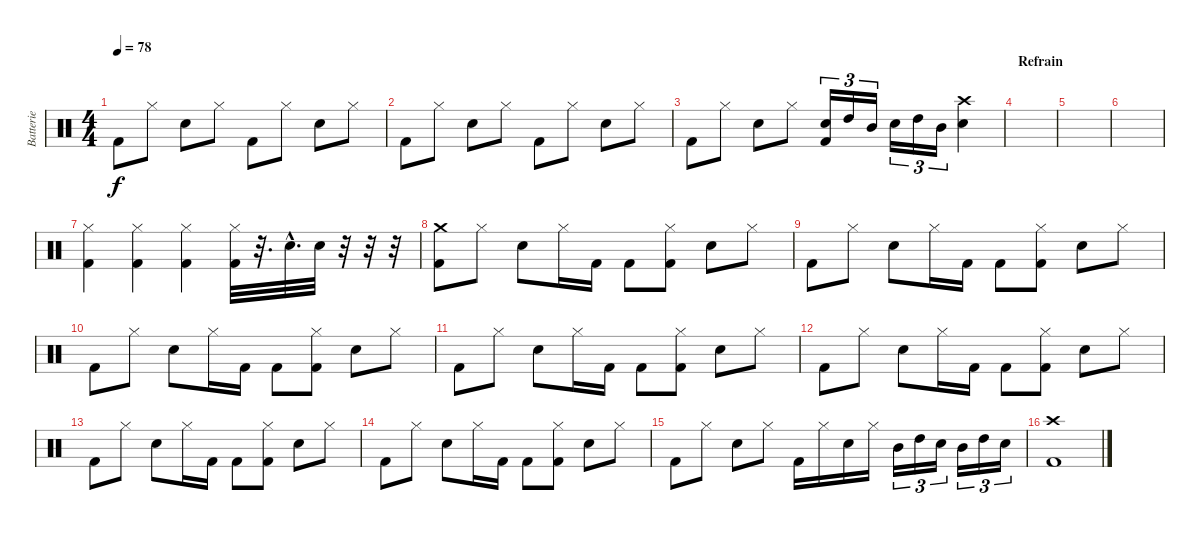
\track ("Batterie" "Batterie") {instrument percussion}
\staff {score}
\articulation defaults
\ts (4 4)
\tempo 78
\clef neutral
\ks c "Kick (hit) 2".8{dy f} "Hi-Hat (closed)".8 "Electric Snare (hit)".8 "Hi-Hat (closed)".8 "Kick (hit) 2".8 "Hi-Hat (closed)".8 "Electric Snare (hit)".8 "Hi-Hat (closed)".8
|
"Kick (hit) 2".8 "Hi-Hat (closed)".8 "Electric Snare (hit)".8 "Hi-Hat (closed)".8 "Kick (hit) 2".8 "Hi-Hat (closed)".8 "Electric Snare (hit)".8 "Hi-Hat (closed)".8 |
"Kick (hit) 2".8 "Hi-Hat (closed)".8 "Electric Snare (hit)".8 "Hi-Hat (closed)".8 ("Electric Snare (hit)" "Kick (hit) 2").16{tu (3 2)} "High Tom (hit)".16{tu (3 2)} "Mid Tom (hit)".16{tu (3 2)} "Electric Snare (hit)".16{tu (3 2)} "High Tom (hit)".16{tu (3 2)} "Mid Tom (hit)".16{tu (3 2)} ("Crash high (hit)" "Electric Snare (hit)").4 |
\section ("" "Refrain")
|
|
|
("Hi-Hat (closed)" "Kick (hit) 2").4 ("Hi-Hat (closed)" "Kick (hit) 2").4 ("Hi-Hat (closed)" "Kick (hit) 2").4 ("Hi-Hat (closed)" "Kick (hit) 2").32 r.32{d} "Electric Snare (hit)"{hac}.32{d} "Electric Snare (hit)".32 r.32 r.32 r.32 |
("Crash medium (hit)" "Kick (hit) 2").8 "Hi-Hat (closed)".8 "Electric Snare (hit)".8 "Hi-Hat (closed)".16 "Kick (hit) 2".16 "Kick (hit) 2".8 ("Hi-Hat (closed)" "Kick (hit) 2").8 "Electric Snare (hit)".8 "Hi-Hat (closed)".8 |
"Kick (hit) 2".8 "Hi-Hat (closed)".8 "Electric Snare (hit)".8 "Hi-Hat (closed)".16 "Kick (hit) 2".16 "Kick (hit) 2".8 ("Hi-Hat (closed)" "Kick (hit) 2").8 "Electric Snare (hit)".8 "Hi-Hat (closed)".8 |
"Kick (hit) 2".8 "Hi-Hat (closed)".8 "Electric Snare (hit)".8 "Hi-Hat (closed)".16 "Kick (hit) 2".16 "Kick (hit) 2".8 ("Hi-Hat (closed)" "Kick (hit) 2").8 "Electric Snare (hit)".8 "Hi-Hat (closed)".8 |
"Kick (hit) 2".8 "Hi-Hat (closed)".8 "Electric Snare (hit)".8 "Hi-Hat (closed)".16 "Kick (hit) 2".16 "Kick (hit) 2".8 ("Hi-Hat (closed)" "Kick (hit) 2").8 "Electric Snare (hit)".8 "Hi-Hat (closed)".8 |
"Kick (hit) 2".8 "Hi-Hat (closed)".8 "Electric Snare (hit)".8 "Hi-Hat (closed)".16 "Kick (hit) 2".16 "Kick (hit) 2".8 ("Hi-Hat (closed)" "Kick (hit) 2").8 "Electric Snare (hit)".8 "Hi-Hat (closed)".8 |
"Kick (hit) 2".8 "Hi-Hat (closed)".8 "Electric Snare (hit)".8 "Hi-Hat (closed)".16 "Kick (hit) 2".16 "Kick (hit) 2".8 ("Hi-Hat (closed)" "Kick (hit) 2").8 "Electric Snare (hit)".8 "Hi-Hat (closed)".8 |
"Kick (hit) 2".8 "Hi-Hat (closed)".8 "Electric Snare (hit)".8 "Hi-Hat (closed)".16 "Kick (hit) 2".16 "Kick (hit) 2".8 ("Hi-Hat (closed)" "Kick (hit) 2").8 "Electric Snare (hit)".8 "Hi-Hat (closed)".8 |
"Kick (hit) 2".8 "Hi-Hat (closed)".8 "Electric Snare (hit)".8 "Hi-Hat (closed)".8 "Kick (hit) 2".16 "Hi-Hat (closed)".16 "Electric Snare (hit)".16 "Hi-Hat (closed)".16 "Mid Tom (hit)".16{tu (3 2)} "High Tom (hit)".16{tu (3 2)} "Electric Snare (hit)".16{tu (3 2)} "Mid Tom (hit)".16{tu (3 2)} "High Tom (hit)".16{tu (3 2)} "Electric Snare (hit)".16{tu (3 2)} |
("Crash high (hit)" "Kick (hit) 2").1
